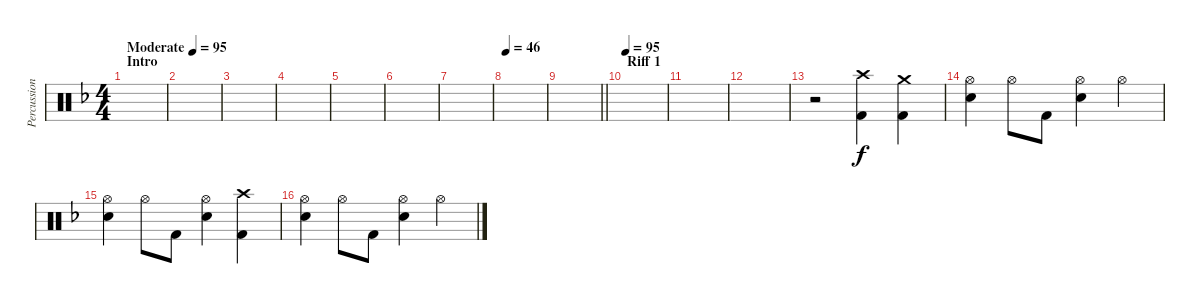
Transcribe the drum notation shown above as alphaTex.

\track ("Percussions (Scott Travis)" "Percussion") {instrument percussion}
\staff {score}
\articulation defaults
\ts (4 4)
\section ("" "Intro")
\tempo (95 "Moderate")
\clef neutral
\ks dminor
|
|
|
|
|
|
|
\tempo 46
|
\barLineRight lightlight
|
\section ("" "Riff 1")
\tempo 95
|
|
|
r.2 ("Crash high (hit)" "Kick (hit) 2").4 ("Crash medium (hit)" "Kick (hit) 2").4 |
("Hi-Hat (open)" "Snare (hit) 2").4 "Hi-Hat (open)".8 "Kick (hit) 2".8 ("Hi-Hat (open)" "Snare (hit) 2").4 "Hi-Hat (open)".4 |
("Hi-Hat (open)" "Snare (hit) 2").4 "Hi-Hat (open)".8 "Kick (hit) 2".8 ("Hi-Hat (open)" "Snare (hit) 2").4 ("Crash high (hit)" "Kick (hit) 2").4 |
("Hi-Hat (open)" "Snare (hit) 2").4 "Hi-Hat (open)".8 "Kick (hit) 2".8 ("Hi-Hat (open)" "Snare (hit) 2").4 "Hi-Hat (open)".4
